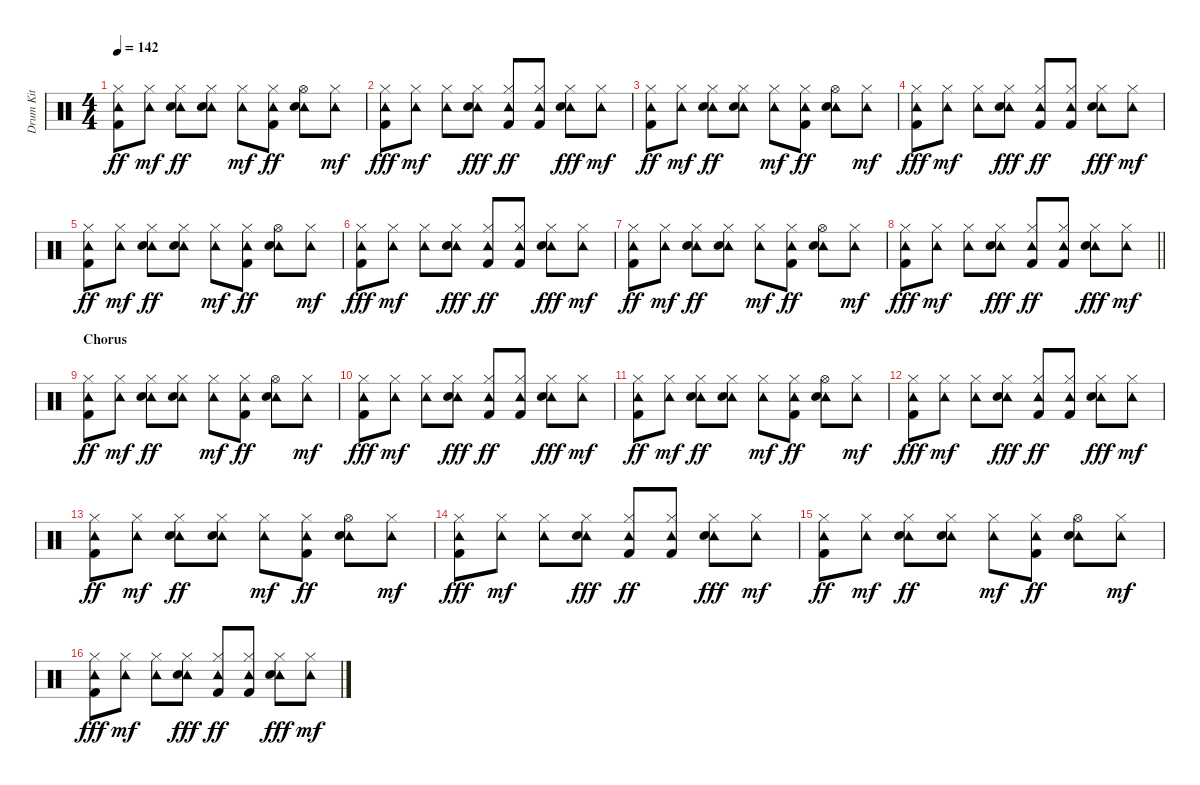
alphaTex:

\track ("Drum Kit" "Drum Kit") {instrument percussion}
\staff {score}
\articulation defaults
\ts (4 4)
\tempo 142
\clef neutral
\ks c
("Tambourine (hit)" "Hi-Hat (closed)" "Kick (hit) 2").8{dy ff} ("Tambourine (hit)" "Hi-Hat (closed)").8{dy mf} ("Tambourine (hit)" "Hi-Hat (closed)" "Electric Snare (hit)").8{dy ff} ("Tambourine (hit)" "Hi-Hat (closed)" "Electric Snare (hit)").8 ("Tambourine (hit)" "Hi-Hat (closed)").8{dy mf} ("Tambourine (hit)" "Hi-Hat (closed)" "Kick (hit) 2").8{dy ff} ("Tambourine (hit)" "Hi-Hat (open)" "Electric Snare (hit)").8 ("Tambourine (hit)" "Hi-Hat (closed)").8{dy mf} |
("Hi-Hat (closed)" "Tambourine (hit)" "Kick (hit) 2").8{dy fff} ("Tambourine (hit)" "Hi-Hat (closed)").8{dy mf} ("Tambourine (hit)" "Hi-Hat (closed)").8 ("Tambourine (hit)" "Hi-Hat (closed)" "Electric Snare (hit)").8{dy fff} ("Tambourine (hit)" "Hi-Hat (closed)" "Kick (hit) 2").8{dy ff} ("Tambourine (hit)" "Hi-Hat (closed)" "Kick (hit) 2").8 ("Tambourine (hit)" "Hi-Hat (closed)" "Electric Snare (hit)").8{dy fff} ("Tambourine (hit)" "Hi-Hat (closed)").8{dy mf} |
("Tambourine (hit)" "Hi-Hat (closed)" "Kick (hit) 2").8{dy ff} ("Tambourine (hit)" "Hi-Hat (closed)").8{dy mf} ("Tambourine (hit)" "Hi-Hat (closed)" "Electric Snare (hit)").8{dy ff} ("Tambourine (hit)" "Hi-Hat (closed)" "Electric Snare (hit)").8 ("Tambourine (hit)" "Hi-Hat (closed)").8{dy mf} ("Tambourine (hit)" "Hi-Hat (closed)" "Kick (hit) 2").8{dy ff} ("Tambourine (hit)" "Hi-Hat (open)" "Electric Snare (hit)").8 ("Tambourine (hit)" "Hi-Hat (closed)").8{dy mf} |
("Hi-Hat (closed)" "Tambourine (hit)" "Kick (hit) 2").8{dy fff} ("Tambourine (hit)" "Hi-Hat (closed)").8{dy mf} ("Tambourine (hit)" "Hi-Hat (closed)").8 ("Tambourine (hit)" "Hi-Hat (closed)" "Electric Snare (hit)").8{dy fff} ("Tambourine (hit)" "Hi-Hat (closed)" "Kick (hit) 2").8{dy ff} ("Tambourine (hit)" "Hi-Hat (closed)" "Kick (hit) 2").8 ("Tambourine (hit)" "Hi-Hat (closed)" "Electric Snare (hit)").8{dy fff} ("Tambourine (hit)" "Hi-Hat (closed)").8{dy mf} |
("Tambourine (hit)" "Hi-Hat (closed)" "Kick (hit) 2").8{dy ff} ("Tambourine (hit)" "Hi-Hat (closed)").8{dy mf} ("Tambourine (hit)" "Hi-Hat (closed)" "Electric Snare (hit)").8{dy ff} ("Tambourine (hit)" "Hi-Hat (closed)" "Electric Snare (hit)").8 ("Tambourine (hit)" "Hi-Hat (closed)").8{dy mf} ("Tambourine (hit)" "Hi-Hat (closed)" "Kick (hit) 2").8{dy ff} ("Tambourine (hit)" "Hi-Hat (open)" "Electric Snare (hit)").8 ("Tambourine (hit)" "Hi-Hat (closed)").8{dy mf} |
("Hi-Hat (closed)" "Tambourine (hit)" "Kick (hit) 2").8{dy fff} ("Tambourine (hit)" "Hi-Hat (closed)").8{dy mf} ("Tambourine (hit)" "Hi-Hat (closed)").8 ("Tambourine (hit)" "Hi-Hat (closed)" "Electric Snare (hit)").8{dy fff} ("Tambourine (hit)" "Hi-Hat (closed)" "Kick (hit) 2").8{dy ff} ("Tambourine (hit)" "Hi-Hat (closed)" "Kick (hit) 2").8 ("Tambourine (hit)" "Hi-Hat (closed)" "Electric Snare (hit)").8{dy fff} ("Tambourine (hit)" "Hi-Hat (closed)").8{dy mf} |
("Tambourine (hit)" "Hi-Hat (closed)" "Kick (hit) 2").8{dy ff} ("Tambourine (hit)" "Hi-Hat (closed)").8{dy mf} ("Tambourine (hit)" "Hi-Hat (closed)" "Electric Snare (hit)").8{dy ff} ("Tambourine (hit)" "Hi-Hat (closed)" "Electric Snare (hit)").8 ("Tambourine (hit)" "Hi-Hat (closed)").8{dy mf} ("Tambourine (hit)" "Hi-Hat (closed)" "Kick (hit) 2").8{dy ff} ("Tambourine (hit)" "Hi-Hat (open)" "Electric Snare (hit)").8 ("Tambourine (hit)" "Hi-Hat (closed)").8{dy mf} |
\barLineRight lightlight
("Hi-Hat (closed)" "Tambourine (hit)" "Kick (hit) 2").8{dy fff} ("Tambourine (hit)" "Hi-Hat (closed)").8{dy mf} ("Tambourine (hit)" "Hi-Hat (closed)").8 ("Tambourine (hit)" "Hi-Hat (closed)" "Electric Snare (hit)").8{dy fff} ("Tambourine (hit)" "Hi-Hat (closed)" "Kick (hit) 2").8{dy ff} ("Tambourine (hit)" "Hi-Hat (closed)" "Kick (hit) 2").8 ("Tambourine (hit)" "Hi-Hat (closed)" "Electric Snare (hit)").8{dy fff} ("Tambourine (hit)" "Hi-Hat (closed)").8{dy mf} |
\section ("" "Chorus")
("Tambourine (hit)" "Hi-Hat (closed)" "Kick (hit) 2").8{dy ff} ("Tambourine (hit)" "Hi-Hat (closed)").8{dy mf} ("Tambourine (hit)" "Hi-Hat (closed)" "Electric Snare (hit)").8{dy ff} ("Tambourine (hit)" "Hi-Hat (closed)" "Electric Snare (hit)").8 ("Tambourine (hit)" "Hi-Hat (closed)").8{dy mf} ("Tambourine (hit)" "Hi-Hat (closed)" "Kick (hit) 2").8{dy ff} ("Tambourine (hit)" "Hi-Hat (open)" "Electric Snare (hit)").8 ("Tambourine (hit)" "Hi-Hat (closed)").8{dy mf} |
("Hi-Hat (closed)" "Tambourine (hit)" "Kick (hit) 2").8{dy fff} ("Tambourine (hit)" "Hi-Hat (closed)").8{dy mf} ("Tambourine (hit)" "Hi-Hat (closed)").8 ("Tambourine (hit)" "Hi-Hat (closed)" "Electric Snare (hit)").8{dy fff} ("Tambourine (hit)" "Hi-Hat (closed)" "Kick (hit) 2").8{dy ff} ("Tambourine (hit)" "Hi-Hat (closed)" "Kick (hit) 2").8 ("Tambourine (hit)" "Hi-Hat (closed)" "Electric Snare (hit)").8{dy fff} ("Tambourine (hit)" "Hi-Hat (closed)").8{dy mf} |
("Tambourine (hit)" "Hi-Hat (closed)" "Kick (hit) 2").8{dy ff} ("Tambourine (hit)" "Hi-Hat (closed)").8{dy mf} ("Tambourine (hit)" "Hi-Hat (closed)" "Electric Snare (hit)").8{dy ff} ("Tambourine (hit)" "Hi-Hat (closed)" "Electric Snare (hit)").8 ("Tambourine (hit)" "Hi-Hat (closed)").8{dy mf} ("Tambourine (hit)" "Hi-Hat (closed)" "Kick (hit) 2").8{dy ff} ("Tambourine (hit)" "Hi-Hat (open)" "Electric Snare (hit)").8 ("Tambourine (hit)" "Hi-Hat (closed)").8{dy mf} |
("Hi-Hat (closed)" "Tambourine (hit)" "Kick (hit) 2").8{dy fff} ("Tambourine (hit)" "Hi-Hat (closed)").8{dy mf} ("Tambourine (hit)" "Hi-Hat (closed)").8 ("Tambourine (hit)" "Hi-Hat (closed)" "Electric Snare (hit)").8{dy fff} ("Tambourine (hit)" "Hi-Hat (closed)" "Kick (hit) 2").8{dy ff} ("Tambourine (hit)" "Hi-Hat (closed)" "Kick (hit) 2").8 ("Tambourine (hit)" "Hi-Hat (closed)" "Electric Snare (hit)").8{dy fff} ("Tambourine (hit)" "Hi-Hat (closed)").8{dy mf} |
("Tambourine (hit)" "Hi-Hat (closed)" "Kick (hit) 2").8{dy ff} ("Tambourine (hit)" "Hi-Hat (closed)").8{dy mf} ("Tambourine (hit)" "Hi-Hat (closed)" "Electric Snare (hit)").8{dy ff} ("Tambourine (hit)" "Hi-Hat (closed)" "Electric Snare (hit)").8 ("Tambourine (hit)" "Hi-Hat (closed)").8{dy mf} ("Tambourine (hit)" "Hi-Hat (closed)" "Kick (hit) 2").8{dy ff} ("Tambourine (hit)" "Hi-Hat (open)" "Electric Snare (hit)").8 ("Tambourine (hit)" "Hi-Hat (closed)").8{dy mf} |
("Hi-Hat (closed)" "Tambourine (hit)" "Kick (hit) 2").8{dy fff} ("Tambourine (hit)" "Hi-Hat (closed)").8{dy mf} ("Tambourine (hit)" "Hi-Hat (closed)").8 ("Tambourine (hit)" "Hi-Hat (closed)" "Electric Snare (hit)").8{dy fff} ("Tambourine (hit)" "Hi-Hat (closed)" "Kick (hit) 2").8{dy ff} ("Tambourine (hit)" "Hi-Hat (closed)" "Kick (hit) 2").8 ("Tambourine (hit)" "Hi-Hat (closed)" "Electric Snare (hit)").8{dy fff} ("Tambourine (hit)" "Hi-Hat (closed)").8{dy mf} |
("Tambourine (hit)" "Hi-Hat (closed)" "Kick (hit) 2").8{dy ff} ("Tambourine (hit)" "Hi-Hat (closed)").8{dy mf} ("Tambourine (hit)" "Hi-Hat (closed)" "Electric Snare (hit)").8{dy ff} ("Tambourine (hit)" "Hi-Hat (closed)" "Electric Snare (hit)").8 ("Tambourine (hit)" "Hi-Hat (closed)").8{dy mf} ("Tambourine (hit)" "Hi-Hat (closed)" "Kick (hit) 2").8{dy ff} ("Tambourine (hit)" "Hi-Hat (open)" "Electric Snare (hit)").8 ("Tambourine (hit)" "Hi-Hat (closed)").8{dy mf} |
("Hi-Hat (closed)" "Tambourine (hit)" "Kick (hit) 2").8{dy fff} ("Tambourine (hit)" "Hi-Hat (closed)").8{dy mf} ("Tambourine (hit)" "Hi-Hat (closed)").8 ("Tambourine (hit)" "Hi-Hat (closed)" "Electric Snare (hit)").8{dy fff} ("Tambourine (hit)" "Hi-Hat (closed)" "Kick (hit) 2").8{dy ff} ("Tambourine (hit)" "Hi-Hat (closed)" "Kick (hit) 2").8 ("Tambourine (hit)" "Hi-Hat (closed)" "Electric Snare (hit)").8{dy fff} ("Tambourine (hit)" "Hi-Hat (closed)").8{dy mf}
